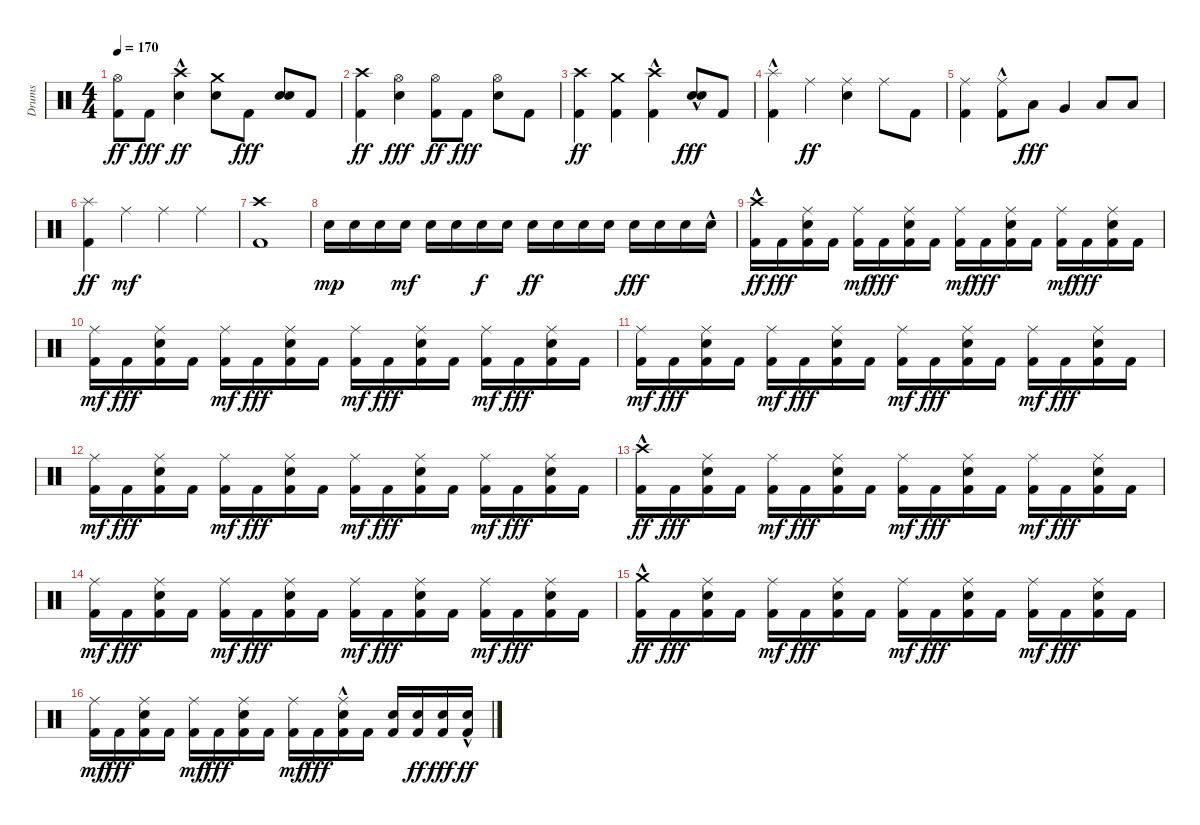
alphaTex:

\track ("Drums" "Drums") {instrument percussion}
\staff {score}
\articulation defaults
\ts (4 4)
\tempo 170
\clef neutral
\ks c
("Kick (hit) 2" "Hi-Hat (open)").8{dy ff} "Kick (hit) 2".8{dy fff} ("Snare (hit) 2" "Crash high (hit)"{hac}).4{dy ff} ("Snare (hit) 2" "Crash medium (hit)").8 "Kick (hit) 2".8{dy fff} ("Snare (hit) 2" "Snare (hit) 2").8 "Kick (hit) 2".8 |
("Kick (hit) 2" "Crash high (hit)").4{dy ff} ("Snare (hit) 2" "Hi-Hat (open)").4{dy fff} ("Kick (hit) 2" "Hi-Hat (open)").8{dy ff} "Kick (hit) 2".8{dy fff} ("Snare (hit) 2" "Hi-Hat (open)").8 "Kick (hit) 2".8 |
("Kick (hit) 2" "Crash high (hit)").4{dy ff} ("Kick (hit) 2" "Crash medium (hit)").4 ("Kick (hit) 2"{hac} "Crash high (hit)").4 ("Snare (hit) 2" "Snare (hit) 2"{hac}).8{dy fff} "Kick (hit) 2".8 |
("Kick (hit) 2"{hac} "Splash (hit)").4 "Ride (middle)".4{dy ff} ("Snare (hit) 2" "Ride (middle)").4 "Ride (middle)".8 "Kick (hit) 2".8 |
("Kick (hit) 2" "Ride (middle)").4 ("Kick (hit) 2"{hac} "Ride (middle)").8 "Low Tom (hit)".8{dy fff} "Very Low Tom (hit)".4 "Low Floor Tom (hit)".8 "Low Floor Tom (hit)".8 |
("Kick (hit) 2" "Splash (hit)").4{dy ff} "Ride (middle)".4{dy mf} "Ride (middle)".4 "Ride (middle)".4 |
("Kick (hit) 2" "Crash high (hit)").1 |
"Snare (hit) 2".16{dy mp} "Snare (hit) 2".16 "Snare (hit) 2".16 "Snare (hit) 2".16{dy mf} "Snare (hit) 2".16 "Snare (hit) 2".16 "Snare (hit) 2".16{dy f} "Snare (hit) 2".16 "Snare (hit) 2".16{dy ff} "Snare (hit) 2".16 "Snare (hit) 2".16 "Snare (hit) 2".16 "Snare (hit) 2".16{dy fff} "Snare (hit) 2".16 "Snare (hit) 2".16 "Snare (hit) 2"{hac}.16 |
("Kick (hit) 2" "Crash high (hit)"{hac}).16{dy ff} "Kick (hit) 2".16{dy fff} ("Kick (hit) 2" "Snare (hit) 2" "Ride (middle)").16 "Kick (hit) 2".16 ("Kick (hit) 2" "Ride (middle)").16{dy mf} "Kick (hit) 2".16{dy fff} ("Kick (hit) 2" "Snare (hit) 2" "Ride (middle)").16 "Kick (hit) 2".16 ("Kick (hit) 2" "Ride (middle)").16{dy mf} "Kick (hit) 2".16{dy fff} ("Kick (hit) 2" "Snare (hit) 2" "Ride (middle)").16 "Kick (hit) 2".16 ("Kick (hit) 2" "Ride (middle)").16{dy mf} "Kick (hit) 2".16{dy fff} ("Kick (hit) 2" "Snare (hit) 2" "Ride (middle)").16 "Kick (hit) 2".16 |
("Kick (hit) 2" "Ride (middle)").16{dy mf} "Kick (hit) 2".16{dy fff} ("Kick (hit) 2" "Snare (hit) 2" "Ride (middle)").16 "Kick (hit) 2".16 ("Kick (hit) 2" "Ride (middle)").16{dy mf} "Kick (hit) 2".16{dy fff} ("Kick (hit) 2" "Snare (hit) 2" "Ride (middle)").16 "Kick (hit) 2".16 ("Kick (hit) 2" "Ride (middle)").16{dy mf} "Kick (hit) 2".16{dy fff} ("Kick (hit) 2" "Snare (hit) 2" "Ride (middle)").16 "Kick (hit) 2".16 ("Kick (hit) 2" "Ride (middle)").16{dy mf} "Kick (hit) 2".16{dy fff} ("Kick (hit) 2" "Snare (hit) 2" "Ride (middle)").16 "Kick (hit) 2".16 |
("Kick (hit) 2" "Ride (middle)").16{dy mf} "Kick (hit) 2".16{dy fff} ("Kick (hit) 2" "Snare (hit) 2" "Ride (middle)").16 "Kick (hit) 2".16 ("Kick (hit) 2" "Ride (middle)").16{dy mf} "Kick (hit) 2".16{dy fff} ("Kick (hit) 2" "Snare (hit) 2" "Ride (middle)").16 "Kick (hit) 2".16 ("Kick (hit) 2" "Ride (middle)").16{dy mf} "Kick (hit) 2".16{dy fff} ("Kick (hit) 2" "Snare (hit) 2" "Ride (middle)").16 "Kick (hit) 2".16 ("Kick (hit) 2" "Ride (middle)").16{dy mf} "Kick (hit) 2".16{dy fff} ("Kick (hit) 2" "Snare (hit) 2" "Ride (middle)").16 "Kick (hit) 2".16 |
("Kick (hit) 2" "Ride (middle)").16{dy mf} "Kick (hit) 2".16{dy fff} ("Kick (hit) 2" "Snare (hit) 2" "Ride (middle)").16 "Kick (hit) 2".16 ("Kick (hit) 2" "Ride (middle)").16{dy mf} "Kick (hit) 2".16{dy fff} ("Kick (hit) 2" "Snare (hit) 2" "Ride (middle)").16 "Kick (hit) 2".16 ("Kick (hit) 2" "Ride (middle)").16{dy mf} "Kick (hit) 2".16{dy fff} ("Kick (hit) 2" "Snare (hit) 2" "Ride (middle)").16 "Kick (hit) 2".16 ("Kick (hit) 2" "Ride (middle)").16{dy mf} "Kick (hit) 2".16{dy fff} ("Kick (hit) 2" "Snare (hit) 2" "Ride (middle)").16 "Kick (hit) 2".16 |
("Kick (hit) 2" "Crash high (hit)"{hac}).16{dy ff} "Kick (hit) 2".16{dy fff} ("Kick (hit) 2" "Snare (hit) 2" "Ride (middle)").16 "Kick (hit) 2".16 ("Kick (hit) 2" "Ride (middle)").16{dy mf} "Kick (hit) 2".16{dy fff} ("Kick (hit) 2" "Snare (hit) 2" "Ride (middle)").16 "Kick (hit) 2".16 ("Kick (hit) 2" "Ride (middle)").16{dy mf} "Kick (hit) 2".16{dy fff} ("Kick (hit) 2" "Snare (hit) 2" "Ride (middle)").16 "Kick (hit) 2".16 ("Kick (hit) 2" "Ride (middle)").16{dy mf} "Kick (hit) 2".16{dy fff} ("Kick (hit) 2" "Snare (hit) 2" "Ride (middle)").16 "Kick (hit) 2".16 |
("Kick (hit) 2" "Ride (middle)").16{dy mf} "Kick (hit) 2".16{dy fff} ("Kick (hit) 2" "Snare (hit) 2" "Ride (middle)").16 "Kick (hit) 2".16 ("Kick (hit) 2" "Ride (middle)").16{dy mf} "Kick (hit) 2".16{dy fff} ("Kick (hit) 2" "Snare (hit) 2" "Ride (middle)").16 "Kick (hit) 2".16 ("Kick (hit) 2" "Ride (middle)").16{dy mf} "Kick (hit) 2".16{dy fff} ("Kick (hit) 2" "Snare (hit) 2" "Ride (middle)").16 "Kick (hit) 2".16 ("Kick (hit) 2" "Ride (middle)").16{dy mf} "Kick (hit) 2".16{dy fff} ("Kick (hit) 2" "Snare (hit) 2" "Ride (middle)").16 "Kick (hit) 2".16 |
("Kick (hit) 2" "Crash medium (hit)"{hac}).16{dy ff} "Kick (hit) 2".16{dy fff} ("Kick (hit) 2" "Snare (hit) 2" "Ride (middle)").16 "Kick (hit) 2".16 ("Kick (hit) 2" "Ride (middle)").16{dy mf} "Kick (hit) 2".16{dy fff} ("Kick (hit) 2" "Snare (hit) 2" "Ride (middle)").16 "Kick (hit) 2".16 ("Kick (hit) 2" "Ride (middle)").16{dy mf} "Kick (hit) 2".16{dy fff} ("Kick (hit) 2" "Snare (hit) 2" "Ride (middle)").16 "Kick (hit) 2".16 ("Kick (hit) 2" "Ride (middle)").16{dy mf} "Kick (hit) 2".16{dy fff} ("Kick (hit) 2" "Snare (hit) 2" "Ride (middle)").16 "Kick (hit) 2".16 |
("Kick (hit) 2" "Ride (middle)").16{dy mf} "Kick (hit) 2".16{dy fff} ("Kick (hit) 2" "Snare (hit) 2" "Ride (middle)").16 "Kick (hit) 2".16 ("Kick (hit) 2" "Ride (middle)").16{dy mf} "Kick (hit) 2".16{dy fff} ("Kick (hit) 2" "Snare (hit) 2" "Ride (middle)").16 "Kick (hit) 2".16 ("Kick (hit) 2" "Ride (middle)").16{dy mf} "Kick (hit) 2".16{dy fff} ("Kick (hit) 2" "Snare (hit) 2" "Ride (middle)"{hac}).16 "Kick (hit) 2".16 ("Kick (hit) 2" "Snare (hit) 2").16 ("Kick (hit) 2" "Snare (hit) 2").16{dy ff} ("Kick (hit) 2" "Snare (hit) 2").16{dy fff} ("Kick (hit) 2" "Snare (hit) 2"{hac}).16{dy ff}
